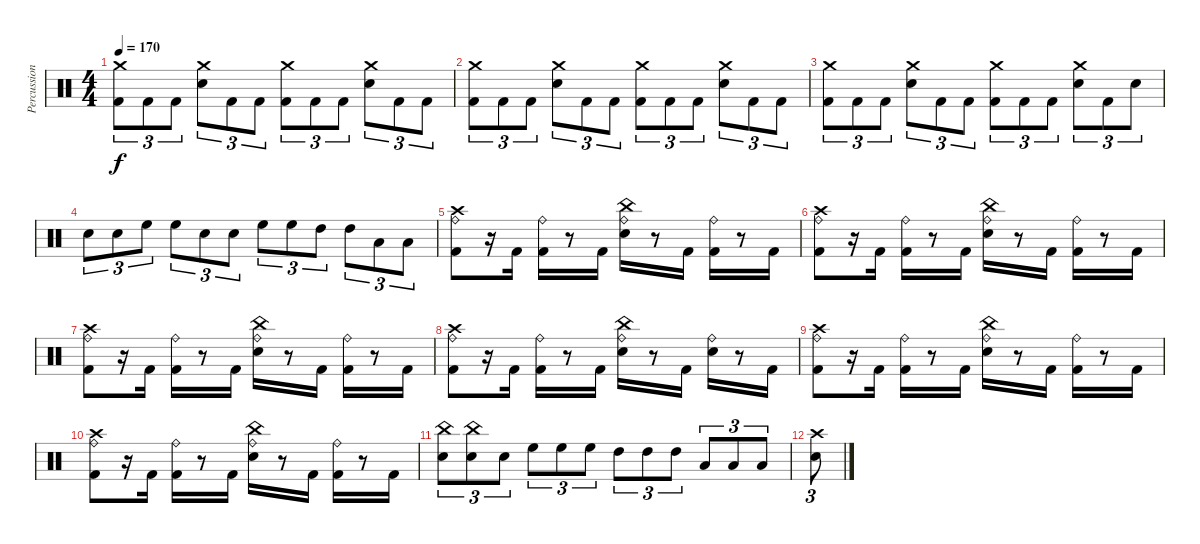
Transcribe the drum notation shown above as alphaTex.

\track ("Percussion" "Percussion") {instrument percussion}
\staff {score}
\articulation defaults
\ts (4 4)
\tempo 170
\clef neutral
\ks c
("Crash medium (hit)" "Kick (hit) 2").8{tu (3 2) dy f} "Kick (hit) 2".8{tu (3 2)} "Kick (hit) 2".8{tu (3 2)} ("Crash medium (hit)" "Electric Snare (hit)").8{tu (3 2)} "Kick (hit) 2".8{tu (3 2)} "Kick (hit) 2".8{tu (3 2)} ("Crash medium (hit)" "Kick (hit) 2").8{tu (3 2)} "Kick (hit) 2".8{tu (3 2)} "Kick (hit) 2".8{tu (3 2)} ("Crash medium (hit)" "Electric Snare (hit)").8{tu (3 2)} "Kick (hit) 2".8{tu (3 2)} "Kick (hit) 2".8{tu (3 2)} |
("Crash medium (hit)" "Kick (hit) 2").8{tu (3 2)} "Kick (hit) 2".8{tu (3 2)} "Kick (hit) 2".8{tu (3 2)} ("Crash medium (hit)" "Electric Snare (hit)").8{tu (3 2)} "Kick (hit) 2".8{tu (3 2)} "Kick (hit) 2".8{tu (3 2)} ("Crash medium (hit)" "Kick (hit) 2").8{tu (3 2)} "Kick (hit) 2".8{tu (3 2)} "Kick (hit) 2".8{tu (3 2)} ("Crash medium (hit)" "Electric Snare (hit)").8{tu (3 2)} "Kick (hit) 2".8{tu (3 2)} "Kick (hit) 2".8{tu (3 2)} |
("Crash medium (hit)" "Kick (hit) 2").8{tu (3 2)} "Kick (hit) 2".8{tu (3 2)} "Kick (hit) 2".8{tu (3 2)} ("Crash medium (hit)" "Electric Snare (hit)").8{tu (3 2)} "Kick (hit) 2".8{tu (3 2)} "Kick (hit) 2".8{tu (3 2)} ("Crash medium (hit)" "Kick (hit) 2").8{tu (3 2)} "Kick (hit) 2".8{tu (3 2)} "Kick (hit) 2".8{tu (3 2)} ("Crash medium (hit)" "Electric Snare (hit)").8{tu (3 2)} "Kick (hit) 2".8{tu (3 2)} "Electric Snare (hit)".8{tu (3 2)} |
"Electric Snare (hit)".8{tu (3 2)} "Electric Snare (hit)".8{tu (3 2)} "High Floor Tom (hit)".8{tu (3 2)} "High Floor Tom (hit)".8{tu (3 2)} "Electric Snare (hit)".8{tu (3 2)} "Electric Snare (hit)".8{tu (3 2)} "High Floor Tom (hit)".8{tu (3 2)} "High Floor Tom (hit)".8{tu (3 2)} "High Tom (hit)".8{tu (3 2)} "High Tom (hit)".8{tu (3 2)} "Low Floor Tom (hit)".8{tu (3 2)} "Low Floor Tom (hit)".8{tu (3 2)} |
("Crash high (hit)" "Ride (bell)" "Kick (hit) 2").8 r.16 "Kick (hit) 2".16 ("Ride (bell)" "Kick (hit) 2").16 r.8 "Kick (hit) 2".16 ("China (hit)" "Ride (bell)" "Electric Snare (hit)").16 r.8 "Kick (hit) 2".16 ("Ride (bell)" "Kick (hit) 2").16 r.8 "Kick (hit) 2".16 |
("Crash high (hit)" "Ride (bell)" "Kick (hit) 2").8 r.16 "Kick (hit) 2".16 ("Ride (bell)" "Kick (hit) 2").16 r.8 "Kick (hit) 2".16 ("China (hit)" "Ride (bell)" "Electric Snare (hit)").16 r.8 "Kick (hit) 2".16 ("Ride (bell)" "Kick (hit) 2").16 r.8 "Kick (hit) 2".16 |
("Crash high (hit)" "Ride (bell)" "Kick (hit) 2").8 r.16 "Kick (hit) 2".16 ("Ride (bell)" "Kick (hit) 2").16 r.8 "Kick (hit) 2".16 ("China (hit)" "Ride (bell)" "Electric Snare (hit)").16 r.8 "Kick (hit) 2".16 ("Ride (bell)" "Kick (hit) 2").16 r.8 "Kick (hit) 2".16 |
("Crash high (hit)" "Ride (bell)" "Kick (hit) 2").8 r.16 "Kick (hit) 2".16 ("Ride (bell)" "Kick (hit) 2").16 r.8 "Kick (hit) 2".16 ("China (hit)" "Ride (bell)" "Electric Snare (hit)").16 r.8 "Kick (hit) 2".16 ("Ride (bell)" "Electric Snare (hit)").16 r.8 "Kick (hit) 2".16 |
("Crash high (hit)" "Ride (bell)" "Kick (hit) 2").8 r.16 "Kick (hit) 2".16 ("Ride (bell)" "Kick (hit) 2").16 r.8 "Kick (hit) 2".16 ("China (hit)" "Ride (bell)" "Electric Snare (hit)").16 r.8 "Kick (hit) 2".16 ("Ride (bell)" "Kick (hit) 2").16 r.8 "Kick (hit) 2".16 |
("Crash high (hit)" "Ride (bell)" "Kick (hit) 2").8 r.16 "Kick (hit) 2".16 ("Ride (bell)" "Kick (hit) 2").16 r.8 "Kick (hit) 2".16 ("China (hit)" "Ride (bell)" "Electric Snare (hit)").16 r.8 "Kick (hit) 2".16 ("Ride (bell)" "Kick (hit) 2").16 r.8 "Kick (hit) 2".16 |
("China (hit)" "Electric Snare (hit)").8{tu (3 2)} ("China (hit)" "Electric Snare (hit)").8{tu (3 2)} "Electric Snare (hit)".8{tu (3 2)} "High Floor Tom (hit)".8{tu (3 2)} "High Floor Tom (hit)".8{tu (3 2)} "High Floor Tom (hit)".8{tu (3 2)} "High Tom (hit)".8{tu (3 2)} "High Tom (hit)".8{tu (3 2)} "High Tom (hit)".8{tu (3 2)} "Low Floor Tom (hit)".8{tu (3 2)} "Low Floor Tom (hit)".8{tu (3 2)} "Low Floor Tom (hit)".8{tu (3 2)} |
("Crash high (hit)" "Electric Snare (hit)").8{tu (3 2)}
